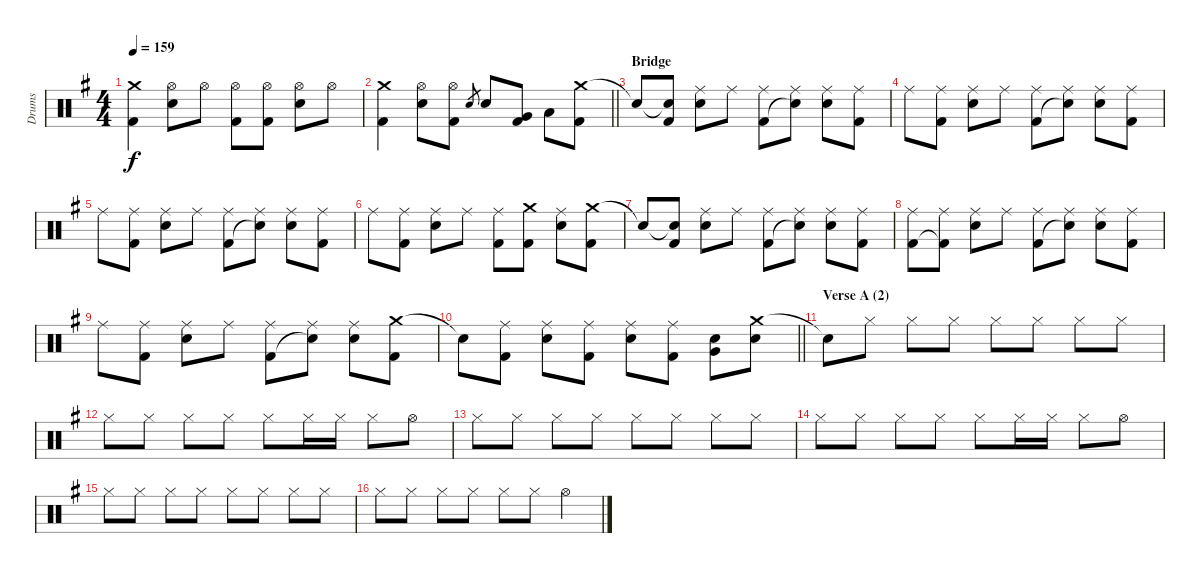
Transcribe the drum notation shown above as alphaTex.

\track ("Drums" "Drums") {instrument percussion}
\staff {score}
\articulation defaults
\ts (4 4)
\tempo 159
\clef neutral
\ks g
("Crash medium (hit)" "Kick (hit) 2").4{dy f} ("Hi-Hat (open)" "Electric Snare (hit)").8 "Hi-Hat (open)".8 ("Hi-Hat (open)" "Kick (hit) 2").8 ("Hi-Hat (open)" "Kick (hit) 2").8 ("Hi-Hat (open)" "Electric Snare (hit)").8 "Hi-Hat (open)".8 |
\barLineRight lightlight
("Crash medium (hit)" "Kick (hit) 2").4 ("Hi-Hat (open)" "Electric Snare (hit)").8 ("Hi-Hat (open)" "Kick (hit) 2").8 "Electric Snare (hit)".8{gr} "Electric Snare (hit)".8 ("Very Low Tom (hit)" "Kick (hit) 2").8 "Low Floor Tom (hit)".8 ("Crash medium (hit)" "Kick (hit) 2").8 |
\section ("" "Bridge")
"Snare (hit)"{t}.8 ("Snare (hit)"{t} "Kick (hit) 2").8 ("Ride (middle)" "Electric Snare (hit)").8 "Ride (middle)".8 ("Ride (middle)" "Kick (hit) 2").8 ("Ride (middle)" "Snare (hit)"{t}).8 ("Ride (middle)" "Electric Snare (hit)").8 ("Ride (middle)" "Kick (hit) 2").8 |
"Ride (middle)".8 ("Ride (middle)" "Kick (hit) 2").8 ("Ride (middle)" "Electric Snare (hit)").8 "Ride (middle)".8 ("Ride (middle)" "Kick (hit) 2").8 ("Ride (middle)" "Snare (hit)"{t}).8 ("Ride (middle)" "Electric Snare (hit)").8 ("Ride (middle)" "Kick (hit) 2").8 |
"Ride (middle)".8 ("Ride (middle)" "Kick (hit) 2").8 ("Ride (middle)" "Electric Snare (hit)").8 "Ride (middle)".8 ("Ride (middle)" "Kick (hit) 2").8 ("Ride (middle)" "Snare (hit)"{t}).8 ("Ride (middle)" "Electric Snare (hit)").8 ("Ride (middle)" "Kick (hit) 2").8 |
"Ride (middle)".8 ("Ride (middle)" "Kick (hit) 2").8 ("Ride (middle)" "Electric Snare (hit)").8 "Ride (middle)".8 ("Ride (middle)" "Kick (hit) 2").8 ("Crash medium (hit)" "Kick (hit) 2").8 ("Ride (middle)" "Electric Snare (hit)").8 ("Crash medium (hit)" "Kick (hit) 2").8 |
"Snare (hit)"{t}.8 ("Snare (hit)"{t} "Kick (hit) 2").8 ("Ride (middle)" "Electric Snare (hit)").8 "Ride (middle)".8 ("Ride (middle)" "Kick (hit) 2").8 ("Ride (middle)" "Snare (hit)"{t}).8 ("Ride (middle)" "Electric Snare (hit)").8 ("Ride (middle)" "Kick (hit) 2").8 |
("Ride (middle)" "Kick (hit) 2").8 ("Ride (middle)" "Kick (hit) 2"{t}).8 ("Ride (middle)" "Electric Snare (hit)").8 "Ride (middle)".8 ("Ride (middle)" "Kick (hit) 2").8 ("Ride (middle)" "Snare (hit)"{t}).8 ("Ride (middle)" "Electric Snare (hit)").8 ("Ride (middle)" "Kick (hit) 2").8 |
"Ride (middle)".8 ("Ride (middle)" "Kick (hit) 2").8 ("Ride (middle)" "Electric Snare (hit)").8 "Ride (middle)".8 ("Ride (middle)" "Kick (hit) 2").8 ("Ride (middle)" "Snare (hit)"{t}).8 ("Ride (middle)" "Electric Snare (hit)").8 ("Crash medium (hit)" "Kick (hit) 2").8 |
\barLineRight lightlight "Snare (hit)"{t}.8
("Ride (middle)" "Kick (hit) 2").8 ("Ride (middle)" "Electric Snare (hit)").8 ("Ride (middle)" "Kick (hit) 2").8 ("Ride (middle)" "Electric Snare (hit)").8 ("Ride (middle)" "Kick (hit) 2").8 ("Electric Snare (hit)" "Very Low Tom (hit)").8 ("Crash medium (hit)" "Electric Snare (hit)").8 |
\section ("" "Verse A (2)")
"Snare (hit)"{t}.8 "Hi-Hat (closed)".8 "Hi-Hat (closed)".8 "Hi-Hat (closed)".8 "Hi-Hat (closed)".8 "Hi-Hat (closed)".8 "Hi-Hat (closed)".8 "Hi-Hat (closed)".8 |
"Hi-Hat (closed)".8 "Hi-Hat (closed)".8 "Hi-Hat (closed)".8 "Hi-Hat (closed)".8 "Hi-Hat (closed)".8 "Hi-Hat (closed)".16 "Hi-Hat (closed)".16 "Hi-Hat (closed)".8 "Hi-Hat (open)".8 |
"Hi-Hat (closed)".8 "Hi-Hat (closed)".8 "Hi-Hat (closed)".8 "Hi-Hat (closed)".8 "Hi-Hat (closed)".8 "Hi-Hat (closed)".8 "Hi-Hat (closed)".8 "Hi-Hat (closed)".8 |
"Hi-Hat (closed)".8 "Hi-Hat (closed)".8 "Hi-Hat (closed)".8 "Hi-Hat (closed)".8 "Hi-Hat (closed)".8 "Hi-Hat (closed)".16 "Hi-Hat (closed)".16 "Hi-Hat (closed)".8 "Hi-Hat (open)".8 |
"Hi-Hat (closed)".8 "Hi-Hat (closed)".8 "Hi-Hat (closed)".8 "Hi-Hat (closed)".8 "Hi-Hat (closed)".8 "Hi-Hat (closed)".8 "Hi-Hat (closed)".8 "Hi-Hat (closed)".8 |
"Hi-Hat (closed)".8 "Hi-Hat (closed)".8 "Hi-Hat (closed)".8 "Hi-Hat (closed)".8 "Hi-Hat (closed)".8 "Hi-Hat (closed)".8 "Hi-Hat (open)".4
